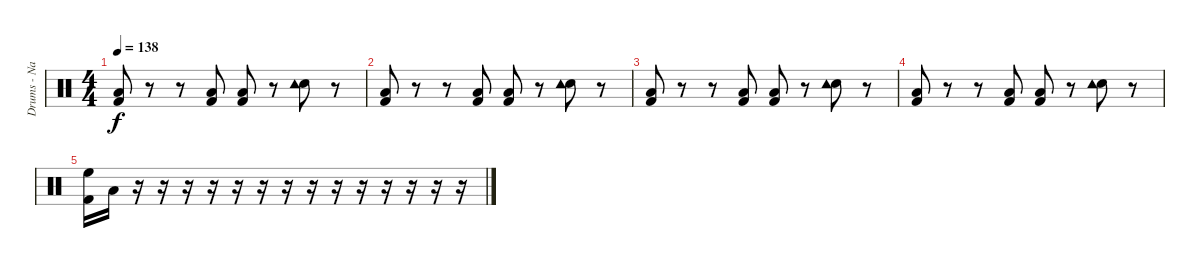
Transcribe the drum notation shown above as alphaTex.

\track ("Drums - Nathan" "Drums - Na") {instrument percussion}
\staff {score}
\articulation defaults
\ts (4 4)
\tempo 138
\clef neutral
\ks c
("Low Tom (hit)" "Kick (hit) 2").8{dy f} r.8 r.8 ("Low Tom (hit)" "Kick (hit) 2").8 ("Low Tom (hit)" "Kick (hit) 2").8 r.8 ("Electric Snare (hit)" "Tambourine (hit)").8 r.8 |
("Low Tom (hit)" "Kick (hit) 2").8 r.8 r.8 ("Low Tom (hit)" "Kick (hit) 2").8 ("Low Tom (hit)" "Kick (hit) 2").8 r.8 ("Electric Snare (hit)" "Tambourine (hit)").8 r.8 |
("Low Tom (hit)" "Kick (hit) 2").8 r.8 r.8 ("Low Tom (hit)" "Kick (hit) 2").8 ("Low Tom (hit)" "Kick (hit) 2").8 r.8 ("Electric Snare (hit)" "Tambourine (hit)").8 r.8 |
("Low Tom (hit)" "Kick (hit) 2").8 r.8 r.8 ("Low Tom (hit)" "Kick (hit) 2").8 ("Low Tom (hit)" "Kick (hit) 2").8 r.8 ("Electric Snare (hit)" "Tambourine (hit)").8 r.8 |
("High Floor Tom (hit)" "Kick (hit) 2").16 "Low Tom (hit)".16 r.16 r.16 r.16 r.16 r.16 r.16 r.16 r.16 r.16 r.16 r.16 r.16 r.16 r.16
